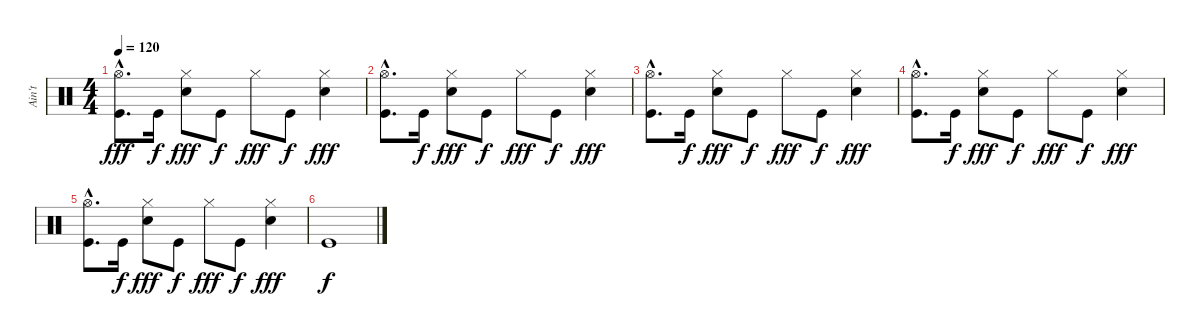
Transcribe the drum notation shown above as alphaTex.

\track ("Ain't" "Ain't") {instrument percussion}
\staff {score}
\articulation defaults
\ts (4 4)
\tempo 120
\clef neutral
\ks c
("Hi-Hat (open)"{hac} "Kick (hit)"{hac}).8{d dy fff} "Kick (hit)".16{dy f} ("Hi-Hat (closed)" "Electric Snare (hit)").8{dy fff} "Kick (hit)".8{dy f} "Hi-Hat (closed)".8{dy fff} "Kick (hit)".8{dy f} ("Hi-Hat (closed)" "Electric Snare (hit)").4{dy fff} |
("Hi-Hat (open)"{hac} "Kick (hit)"{hac}).8{d} "Kick (hit)".16{dy f} ("Hi-Hat (closed)" "Electric Snare (hit)").8{dy fff} "Kick (hit)".8{dy f} "Hi-Hat (closed)".8{dy fff} "Kick (hit)".8{dy f} ("Hi-Hat (closed)" "Electric Snare (hit)").4{dy fff} |
("Hi-Hat (open)"{hac} "Kick (hit)"{hac}).8{d} "Kick (hit)".16{dy f} ("Hi-Hat (closed)" "Electric Snare (hit)").8{dy fff} "Kick (hit)".8{dy f} "Hi-Hat (closed)".8{dy fff} "Kick (hit)".8{dy f} ("Hi-Hat (closed)" "Electric Snare (hit)").4{dy fff} |
("Hi-Hat (open)"{hac} "Kick (hit)"{hac}).8{d} "Kick (hit)".16{dy f} ("Hi-Hat (closed)" "Electric Snare (hit)").8{dy fff} "Kick (hit)".8{dy f} "Hi-Hat (closed)".8{dy fff} "Kick (hit)".8{dy f} ("Hi-Hat (closed)" "Electric Snare (hit)").4{dy fff} |
("Hi-Hat (open)"{hac} "Kick (hit)"{hac}).8{d} "Kick (hit)".16{dy f} ("Hi-Hat (closed)" "Electric Snare (hit)").8{dy fff} "Kick (hit)".8{dy f} "Hi-Hat (closed)".8{dy fff} "Kick (hit)".8{dy f} ("Hi-Hat (closed)" "Electric Snare (hit)").4{dy fff} |
"Kick (hit)".1{dy f}
